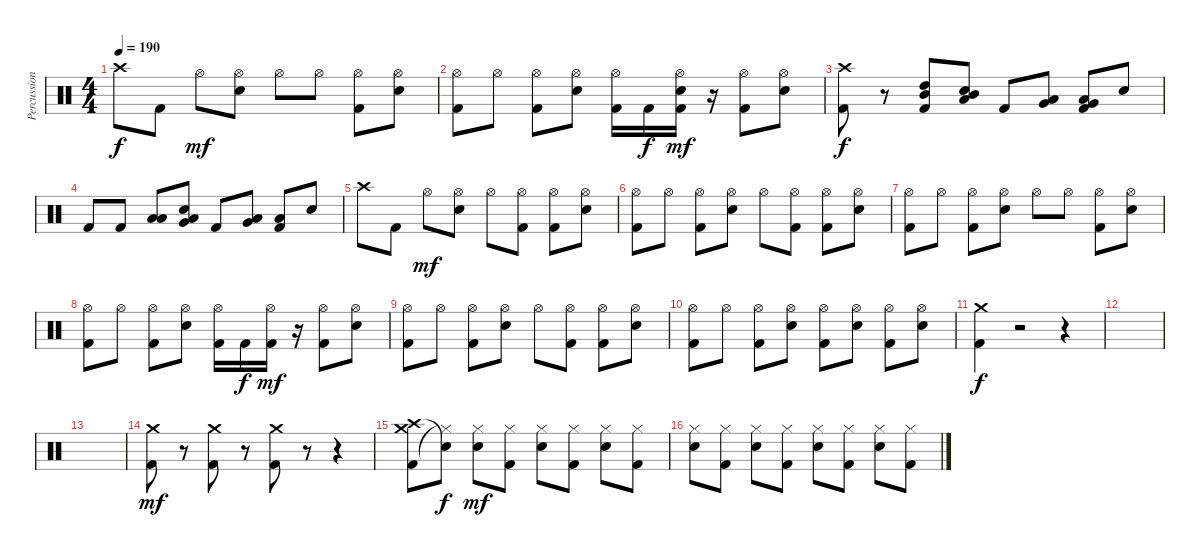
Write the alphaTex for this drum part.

\track ("Percussion" "Percussion") {instrument percussion}
\staff {score}
\articulation defaults
\ts (4 4)
\tempo 190
\clef neutral
\ks c "Crash high (hit)".8{dy f} "Kick (hit) 2".8 "Hi-Hat (open)".8{dy mf}
("Snare (hit) 2" "Hi-Hat (open)").8 "Hi-Hat (open)".8 "Hi-Hat (open)".8 ("Kick (hit) 2" "Hi-Hat (open)").8 ("Snare (hit) 2" "Hi-Hat (open)").8 |
("Kick (hit) 2" "Hi-Hat (open)").8 "Hi-Hat (open)".8 ("Kick (hit) 2" "Hi-Hat (open)").8 ("Snare (hit) 2" "Hi-Hat (open)").8 ("Kick (hit) 2" "Hi-Hat (open)").16 "Kick (hit) 2".16{dy f} ("Kick (hit) 2" "Snare (hit) 2" "Hi-Hat (open)").16{dy mf} r.16 ("Kick (hit) 2" "Hi-Hat (open)").8 ("Snare (hit) 2" "Hi-Hat (open)").8 |
("Kick (hit) 2" "Crash high (hit)").8{dy f} r.8 ("Kick (hit) 2" "Mid Tom (hit)" "High Tom (hit)").8 ("Low Tom (hit)" "Mid Tom (hit)" "Snare (hit) 2").8 "Kick (hit) 2".8 ("Very Low Tom (hit)" "Low Tom (hit)").8 ("Kick (hit) 2" "Low Floor Tom (hit)" "Very Low Tom (hit)").8 "Snare (hit) 2".8 |
"Kick (hit) 2".8 "Kick (hit) 2".8 ("Low Tom (hit)" "Low Floor Tom (hit)").8 ("Very Low Tom (hit)" "Low Tom (hit)" "Snare (hit) 2").8 "Kick (hit) 2".8 ("Low Floor Tom (hit)" "Very Low Tom (hit)").8 ("Kick (hit) 2" "Low Floor Tom (hit)").8 "Snare (hit) 2".8 |
"Crash high (hit)".8 "Kick (hit) 2".8 "Hi-Hat (open)".8{dy mf} ("Snare (hit) 2" "Hi-Hat (open)").8 "Hi-Hat (open)".8 ("Kick (hit) 2" "Hi-Hat (open)").8 ("Kick (hit) 2" "Hi-Hat (open)").8 ("Snare (hit) 2" "Hi-Hat (open)").8 |
("Kick (hit) 2" "Hi-Hat (open)").8 "Hi-Hat (open)".8 ("Kick (hit) 2" "Hi-Hat (open)").8 ("Snare (hit) 2" "Hi-Hat (open)").8 "Hi-Hat (open)".8 ("Kick (hit) 2" "Hi-Hat (open)").8 ("Kick (hit) 2" "Hi-Hat (open)").8 ("Snare (hit) 2" "Hi-Hat (open)").8 |
("Kick (hit) 2" "Hi-Hat (open)").8 "Hi-Hat (open)".8 ("Kick (hit) 2" "Hi-Hat (open)").8 ("Snare (hit) 2" "Hi-Hat (open)").8 "Hi-Hat (open)".8 "Hi-Hat (open)".8 ("Kick (hit) 2" "Hi-Hat (open)").8 ("Snare (hit) 2" "Hi-Hat (open)").8 |
("Kick (hit) 2" "Hi-Hat (open)").8 "Hi-Hat (open)".8 ("Kick (hit) 2" "Hi-Hat (open)").8 ("Snare (hit) 2" "Hi-Hat (open)").8 ("Kick (hit) 2" "Hi-Hat (open)").16 "Kick (hit) 2".16{dy f} ("Kick (hit) 2" "Hi-Hat (open)").16{dy mf} r.16 ("Kick (hit) 2" "Hi-Hat (open)").8 ("Snare (hit) 2" "Hi-Hat (open)").8 |
("Kick (hit) 2" "Hi-Hat (open)").8 "Hi-Hat (open)".8 ("Kick (hit) 2" "Hi-Hat (open)").8 ("Snare (hit) 2" "Hi-Hat (open)").8 "Hi-Hat (open)".8 ("Kick (hit) 2" "Hi-Hat (open)").8 ("Kick (hit) 2" "Hi-Hat (open)").8 ("Snare (hit) 2" "Hi-Hat (open)").8 |
("Kick (hit) 2" "Hi-Hat (open)").8 "Hi-Hat (open)".8 ("Kick (hit) 2" "Hi-Hat (open)").8 ("Snare (hit) 2" "Hi-Hat (open)").8 ("Kick (hit) 2" "Hi-Hat (open)").8 ("Snare (hit) 2" "Hi-Hat (open)").8 ("Kick (hit) 2" "Hi-Hat (open)").8 ("Snare (hit) 2" "Hi-Hat (open)").8 |
("Kick (hit) 2" "Crash medium (hit)").4{dy f} r.2 r.4 |
|
|
("Kick (hit) 2" "Crash medium (hit)").8{dy mf volume 12} r.8 ("Kick (hit) 2" "Crash medium (hit)").8 r.8 ("Kick (hit) 2" "Crash medium (hit)").8 r.8 r.4 |
("Kick (hit) 2" "Crash high (hit)" "Crash medium (hit)").8 ("Hi-Hat (closed)"{t} "Snare (hit)"{t}).8{dy f} ("Snare (hit) 2" "Hi-Hat (closed)").8{dy mf} ("Kick (hit) 2" "Hi-Hat (closed)").8 ("Snare (hit) 2" "Hi-Hat (closed)").8 ("Kick (hit) 2" "Hi-Hat (closed)").8 ("Snare (hit) 2" "Hi-Hat (closed)").8 ("Kick (hit) 2" "Hi-Hat (closed)").8 |
("Snare (hit) 2" "Hi-Hat (closed)").8 ("Kick (hit) 2" "Hi-Hat (closed)").8 ("Snare (hit) 2" "Hi-Hat (closed)").8 ("Kick (hit) 2" "Hi-Hat (closed)").8 ("Snare (hit) 2" "Hi-Hat (closed)").8 ("Kick (hit) 2" "Hi-Hat (closed)").8 ("Snare (hit) 2" "Hi-Hat (closed)").8 ("Kick (hit) 2" "Hi-Hat (closed)").8
